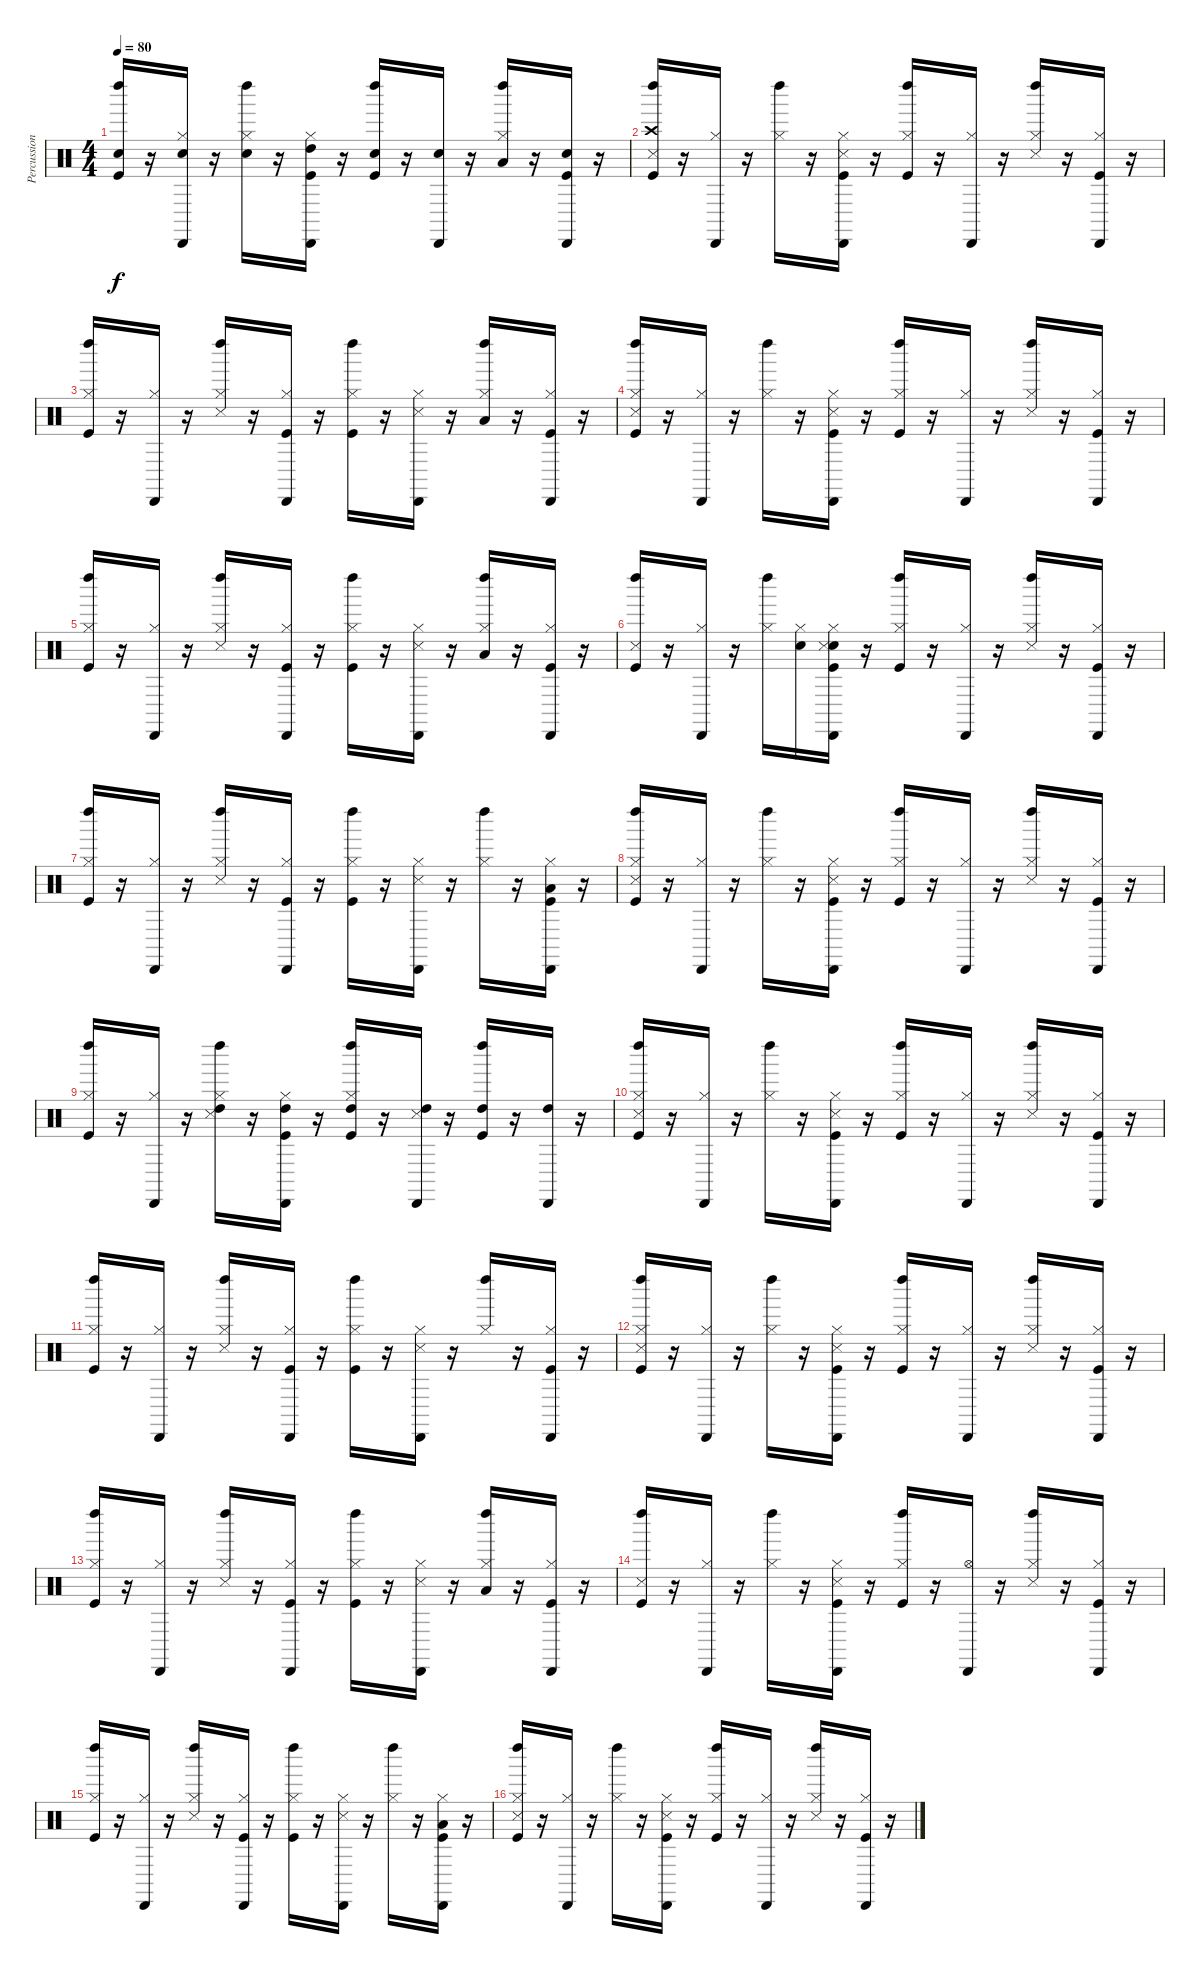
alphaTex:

\track ("Percussions" "Percussion") {instrument percussion}
\staff {score}
\articulation defaults
\ts (4 4)
\tempo 80
\clef neutral
\ks c
("Kick (hit)" "Snare (hit) 2" "Left Maraca (hit)").16{dy f} r.16 ("Snare (hit) 2" "Hi-Hat (closed)" "Cabasa (hit)").16 r.16 ("Snare (hit) 2" "Hi-Hat (closed)" "Left Maraca (hit)").16 r.16 ("Kick (hit)" "Hi-Hat (closed)" "High Tom (hit)" "Cabasa (hit)").16 r.16 ("Kick (hit)" "Snare (hit) 2" "Left Maraca (hit)").16 r.16 ("Snare (hit) 2" "Cabasa (hit)").16 r.16 ("Hi-Hat (closed)" "Low Floor Tom (hit)" "Left Maraca (hit)").16 r.16 ("Kick (hit)" "Snare (hit) 2" "Cabasa (hit)").16 r.16 |
("Kick (hit)" "Snare (side stick) 3" "Crash high (hit)" "Left Maraca (hit)").16 r.16 ("Hi-Hat (closed)" "Cabasa (hit)").16 r.16 ("Hi-Hat (closed)" "Left Maraca (hit)").16 r.16 ("Kick (hit)" "Hi-Hat (closed)" "Snare (side stick) 3" "Cabasa (hit)").16 r.16 ("Kick (hit)" "Hi-Hat (closed)" "Left Maraca (hit)").16 r.16 ("Hi-Hat (closed)" "Cabasa (hit)").16 r.16 ("Hi-Hat (closed)" "Snare (side stick) 3" "Left Maraca (hit)").16 r.16 ("Kick (hit)" "Hi-Hat (closed)" "Cabasa (hit)").16 r.16 |
("Kick (hit)" "Hi-Hat (closed)" "Left Maraca (hit)").16 r.16 ("Hi-Hat (closed)" "Cabasa (hit)").16 r.16 ("Hi-Hat (closed)" "Snare (side stick) 3" "Left Maraca (hit)").16 r.16 ("Kick (hit)" "Hi-Hat (closed)" "Cabasa (hit)").16 r.16 ("Kick (hit)" "Hi-Hat (closed)" "Left Maraca (hit)").16 r.16 ("Hi-Hat (closed)" "Snare (side stick) 3" "Cabasa (hit)").16 r.16 ("Hi-Hat (closed)" "Low Tom (hit)" "Left Maraca (hit)").16 r.16 ("Kick (hit)" "Hi-Hat (closed)" "Cabasa (hit)").16 r.16 |
("Kick (hit)" "Hi-Hat (closed)" "Snare (side stick) 3" "Left Maraca (hit)").16 r.16 ("Hi-Hat (closed)" "Cabasa (hit)").16 r.16 ("Hi-Hat (closed)" "Left Maraca (hit)").16 r.16 ("Kick (hit)" "Hi-Hat (closed)" "Snare (side stick) 3" "Cabasa (hit)").16 r.16 ("Kick (hit)" "Hi-Hat (closed)" "Left Maraca (hit)").16 r.16 ("Hi-Hat (closed)" "Cabasa (hit)").16 r.16 ("Hi-Hat (closed)" "Snare (side stick) 3" "Left Maraca (hit)").16 r.16 ("Kick (hit)" "Hi-Hat (closed)" "Cabasa (hit)").16 r.16 |
("Kick (hit)" "Hi-Hat (closed)" "Left Maraca (hit)").16 r.16 ("Hi-Hat (closed)" "Cabasa (hit)").16 r.16 ("Hi-Hat (closed)" "Snare (side stick) 3" "Left Maraca (hit)").16 r.16 ("Kick (hit)" "Hi-Hat (closed)" "Cabasa (hit)").16 r.16 ("Kick (hit)" "Hi-Hat (closed)" "Left Maraca (hit)").16 r.16 ("Hi-Hat (closed)" "Snare (side stick) 3" "Cabasa (hit)").16 r.16 ("Hi-Hat (closed)" "Low Tom (hit)" "Left Maraca (hit)").16 r.16 ("Kick (hit)" "Hi-Hat (closed)" "Cabasa (hit)").16 r.16 |
("Kick (hit)" "Snare (side stick) 3" "Left Maraca (hit)").16 r.16 ("Hi-Hat (closed)" "Cabasa (hit)").16 r.16 ("Hi-Hat (closed)" "Left Maraca (hit)").16 ("Snare (hit)" "Hi-Hat (closed)").16 ("Snare (hit)" "Kick (hit)" "Hi-Hat (closed)" "Snare (side stick) 3" "Cabasa (hit)").16 r.16 ("Kick (hit)" "Hi-Hat (closed)" "Left Maraca (hit)").16 r.16 ("Hi-Hat (closed)" "Cabasa (hit)").16 r.16 ("Hi-Hat (closed)" "Snare (side stick) 3" "Left Maraca (hit)").16 r.16 ("Kick (hit)" "Hi-Hat (closed)" "Cabasa (hit)").16 r.16 |
("Kick (hit)" "Hi-Hat (closed)" "Left Maraca (hit)").16 r.16 ("Hi-Hat (closed)" "Cabasa (hit)").16 r.16 ("Hi-Hat (closed)" "Snare (side stick) 3" "Left Maraca (hit)").16 r.16 ("Kick (hit)" "Hi-Hat (closed)" "Cabasa (hit)").16 r.16 ("Kick (hit)" "Hi-Hat (closed)" "Left Maraca (hit)").16 r.16 ("Hi-Hat (closed)" "Snare (side stick) 3" "Cabasa (hit)").16 r.16 ("Hi-Hat (closed)" "Left Maraca (hit)").16 r.16 ("Kick (hit)" "Hi-Hat (closed)" "Low Tom (hit)" "Cabasa (hit)").16 r.16 |
("Kick (hit)" "Hi-Hat (closed)" "Snare (side stick) 3" "Left Maraca (hit)").16 r.16 ("Hi-Hat (closed)" "Cabasa (hit)").16 r.16 ("Hi-Hat (closed)" "Left Maraca (hit)").16 r.16 ("Kick (hit)" "Hi-Hat (closed)" "Snare (side stick) 3" "Cabasa (hit)").16 r.16 ("Kick (hit)" "Hi-Hat (closed)" "Left Maraca (hit)").16 r.16 ("Hi-Hat (closed)" "Cabasa (hit)").16 r.16 ("Hi-Hat (closed)" "Snare (side stick) 3" "Left Maraca (hit)").16 r.16 ("Kick (hit)" "Hi-Hat (closed)" "Cabasa (hit)").16 r.16 |
("Kick (hit)" "Hi-Hat (closed)" "Left Maraca (hit)").16 r.16 ("Hi-Hat (closed)" "Cabasa (hit)").16 r.16 ("Hi-Hat (closed)" "Snare (side stick) 3" "High Tom (hit)" "Left Maraca (hit)").16 r.16 ("Kick (hit)" "Hi-Hat (closed)" "High Tom (hit)" "Cabasa (hit)").16 r.16 ("Kick (hit)" "Hi-Hat (closed)" "High Tom (hit)" "Left Maraca (hit)").16 r.16 ("Snare (side stick) 3" "High Tom (hit)" "Cabasa (hit)").16 r.16 ("Kick (hit)" "High Tom (hit)" "Left Maraca (hit)").16 r.16 ("High Tom (hit)" "Cabasa (hit)").16 r.16 |
("Kick (hit)" "Hi-Hat (closed)" "Snare (side stick) 3" "Left Maraca (hit)").16 r.16 ("Hi-Hat (closed)" "Cabasa (hit)").16 r.16 ("Hi-Hat (closed)" "Left Maraca (hit)").16 r.16 ("Kick (hit)" "Hi-Hat (closed)" "Snare (side stick) 3" "Cabasa (hit)").16 r.16 ("Kick (hit)" "Hi-Hat (closed)" "Left Maraca (hit)").16 r.16 ("Hi-Hat (closed)" "Cabasa (hit)").16 r.16 ("Hi-Hat (closed)" "Snare (side stick) 3" "Left Maraca (hit)").16 r.16 ("Kick (hit)" "Hi-Hat (closed)" "Cabasa (hit)").16 r.16 |
("Kick (hit)" "Hi-Hat (closed)" "Left Maraca (hit)").16 r.16 ("Hi-Hat (closed)" "Cabasa (hit)").16 r.16 ("Hi-Hat (closed)" "Snare (side stick) 3" "Left Maraca (hit)").16 r.16 ("Kick (hit)" "Hi-Hat (closed)" "Cabasa (hit)").16 r.16 ("Kick (hit)" "Hi-Hat (closed)" "Left Maraca (hit)").16 r.16 ("Hi-Hat (closed)" "Snare (side stick) 3" "Cabasa (hit)").16 r.16 ("Hi-Hat (closed)" "Left Maraca (hit)").16 r.16 ("Kick (hit)" "Hi-Hat (closed)" "Cabasa (hit)").16 r.16 |
("Kick (hit)" "Hi-Hat (closed)" "Snare (side stick) 3" "Left Maraca (hit)").16 r.16 ("Hi-Hat (closed)" "Cabasa (hit)").16 r.16 ("Hi-Hat (closed)" "Left Maraca (hit)").16 r.16 ("Kick (hit)" "Hi-Hat (closed)" "Snare (side stick) 3" "Cabasa (hit)").16 r.16 ("Kick (hit)" "Hi-Hat (closed)" "Left Maraca (hit)").16 r.16 ("Hi-Hat (closed)" "Cabasa (hit)").16 r.16 ("Hi-Hat (closed)" "Snare (side stick) 3" "Left Maraca (hit)").16 r.16 ("Kick (hit)" "Hi-Hat (closed)" "Cabasa (hit)").16 r.16 |
("Kick (hit)" "Hi-Hat (closed)" "Left Maraca (hit)").16 r.16 ("Hi-Hat (closed)" "Cabasa (hit)").16 r.16 ("Hi-Hat (closed)" "Snare (side stick) 3" "Left Maraca (hit)").16 r.16 ("Kick (hit)" "Hi-Hat (closed)" "Cabasa (hit)").16 r.16 ("Kick (hit)" "Hi-Hat (closed)" "Left Maraca (hit)").16 r.16 ("Hi-Hat (closed)" "Snare (side stick) 3" "Cabasa (hit)").16 r.16 ("Hi-Hat (closed)" "Low Tom (hit)" "Left Maraca (hit)").16 r.16 ("Kick (hit)" "Hi-Hat (closed)" "Cabasa (hit)").16 r.16 |
("Kick (hit)" "Snare (side stick) 3" "Left Maraca (hit)").16 r.16 ("Hi-Hat (closed)" "Cabasa (hit)").16 r.16 ("Hi-Hat (closed)" "Left Maraca (hit)").16 r.16 ("Kick (hit)" "Hi-Hat (closed)" "Snare (side stick) 3" "Cabasa (hit)").16 r.16 ("Kick (hit)" "Hi-Hat (closed)" "Left Maraca (hit)").16 r.16 ("Hi-Hat (open)" "Cabasa (hit)").16 r.16 ("Hi-Hat (closed)" "Snare (side stick) 3" "Left Maraca (hit)").16 r.16 ("Kick (hit)" "Hi-Hat (closed)" "Cabasa (hit)").16 r.16 |
("Kick (hit)" "Hi-Hat (closed)" "Left Maraca (hit)").16 r.16 ("Hi-Hat (closed)" "Cabasa (hit)").16 r.16 ("Hi-Hat (closed)" "Snare (side stick) 3" "Left Maraca (hit)").16 r.16 ("Kick (hit)" "Hi-Hat (closed)" "Cabasa (hit)").16 r.16 ("Kick (hit)" "Hi-Hat (closed)" "Left Maraca (hit)").16 r.16 ("Hi-Hat (closed)" "Snare (side stick) 3" "Cabasa (hit)").16 r.16 ("Hi-Hat (closed)" "Left Maraca (hit)").16 r.16 ("Kick (hit)" "Hi-Hat (closed)" "Low Tom (hit)" "Cabasa (hit)").16 r.16 |
("Kick (hit)" "Hi-Hat (closed)" "Snare (side stick) 3" "Left Maraca (hit)").16 r.16 ("Hi-Hat (closed)" "Cabasa (hit)").16 r.16 ("Hi-Hat (closed)" "Left Maraca (hit)").16 r.16 ("Kick (hit)" "Hi-Hat (closed)" "Snare (side stick) 3" "Cabasa (hit)").16 r.16 ("Kick (hit)" "Hi-Hat (closed)" "Left Maraca (hit)").16 r.16 ("Hi-Hat (closed)" "Cabasa (hit)").16 r.16 ("Hi-Hat (closed)" "Snare (side stick) 3" "Left Maraca (hit)").16 r.16 ("Kick (hit)" "Hi-Hat (closed)" "Cabasa (hit)").16 r.16
